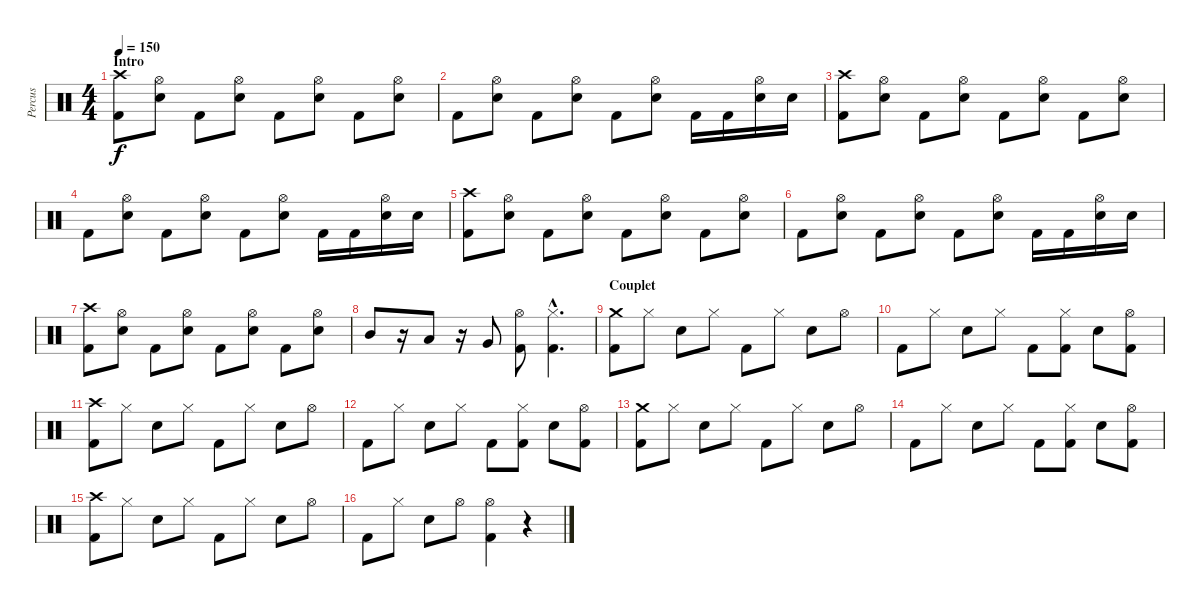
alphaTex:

\track ("Percus" "Percus") {instrument percussion}
\staff {score}
\articulation defaults
\ts (4 4)
\section ("" "Intro")
\tempo 150
\clef neutral
\ks c
("Crash high (hit)" "Kick (hit) 2").8{dy f} ("Hi-Hat (open)" "Snare (hit) 2").8 "Kick (hit) 2".8 ("Hi-Hat (open)" "Snare (hit) 2").8 "Kick (hit) 2".8 ("Hi-Hat (open)" "Snare (hit) 2").8 "Kick (hit) 2".8 ("Hi-Hat (open)" "Snare (hit) 2").8 |
"Kick (hit) 2".8 ("Hi-Hat (open)" "Snare (hit) 2").8 "Kick (hit) 2".8 ("Hi-Hat (open)" "Snare (hit) 2").8 "Kick (hit) 2".8 ("Hi-Hat (open)" "Snare (hit) 2").8 "Kick (hit) 2".16 "Kick (hit) 2".16 ("Hi-Hat (open)" "Snare (hit) 2").16 "Snare (hit) 2".16 |
("Crash high (hit)" "Kick (hit) 2").8 ("Hi-Hat (open)" "Snare (hit) 2").8 "Kick (hit) 2".8 ("Hi-Hat (open)" "Snare (hit) 2").8 "Kick (hit) 2".8 ("Hi-Hat (open)" "Snare (hit) 2").8 "Kick (hit) 2".8 ("Hi-Hat (open)" "Snare (hit) 2").8 |
"Kick (hit) 2".8 ("Hi-Hat (open)" "Snare (hit) 2").8 "Kick (hit) 2".8 ("Hi-Hat (open)" "Snare (hit) 2").8 "Kick (hit) 2".8 ("Hi-Hat (open)" "Snare (hit) 2").8 "Kick (hit) 2".16 "Kick (hit) 2".16 ("Hi-Hat (open)" "Snare (hit) 2").16 "Snare (hit) 2".16 |
("Crash high (hit)" "Kick (hit) 2").8 ("Hi-Hat (open)" "Snare (hit) 2").8 "Kick (hit) 2".8 ("Hi-Hat (open)" "Snare (hit) 2").8 "Kick (hit) 2".8 ("Hi-Hat (open)" "Snare (hit) 2").8 "Kick (hit) 2".8 ("Hi-Hat (open)" "Snare (hit) 2").8 |
"Kick (hit) 2".8 ("Hi-Hat (open)" "Snare (hit) 2").8 "Kick (hit) 2".8 ("Hi-Hat (open)" "Snare (hit) 2").8 "Kick (hit) 2".8 ("Hi-Hat (open)" "Snare (hit) 2").8 "Kick (hit) 2".16 "Kick (hit) 2".16 ("Hi-Hat (open)" "Snare (hit) 2").16 "Snare (hit) 2".16 |
("Crash high (hit)" "Kick (hit) 2").8 ("Hi-Hat (open)" "Snare (hit) 2").8 "Kick (hit) 2".8 ("Hi-Hat (open)" "Snare (hit) 2").8 "Kick (hit) 2".8 ("Hi-Hat (open)" "Snare (hit) 2").8 "Kick (hit) 2".8 ("Hi-Hat (open)" "Snare (hit) 2").8 |
"Mid Tom (hit)".8 r.16 "Low Tom (hit)".8 r.16 "Very Low Tom (hit)".8 ("Hi-Hat (open)" "Kick (hit) 2").8 ("Hi-Hat (closed)"{hac} "Kick (hit) 2"{hac}).4{d} |
\section ("" "Couplet")
("Crash medium (hit)" "Kick (hit) 2").8 "Hi-Hat (closed)".8 "Snare (hit) 2".8 "Hi-Hat (closed)".8 "Kick (hit) 2".8 "Hi-Hat (closed)".8 "Snare (hit) 2".8 "Hi-Hat (open)".8 |
"Kick (hit) 2".8 "Hi-Hat (closed)".8 "Snare (hit) 2".8 "Hi-Hat (closed)".8 "Kick (hit) 2".8 ("Hi-Hat (closed)" "Kick (hit) 2").8 "Snare (hit) 2".8 ("Hi-Hat (open)" "Kick (hit) 2").8 |
("Crash high (hit)" "Kick (hit) 2").8 "Hi-Hat (closed)".8 "Snare (hit) 2".8 "Hi-Hat (closed)".8 "Kick (hit) 2".8 "Hi-Hat (closed)".8 "Snare (hit) 2".8 "Hi-Hat (open)".8 |
"Kick (hit) 2".8 "Hi-Hat (closed)".8 "Snare (hit) 2".8 "Hi-Hat (closed)".8 "Kick (hit) 2".8 ("Hi-Hat (closed)" "Kick (hit) 2").8 "Snare (hit) 2".8 ("Hi-Hat (open)" "Kick (hit) 2").8 |
("Crash medium (hit)" "Kick (hit) 2").8 "Hi-Hat (closed)".8 "Snare (hit) 2".8 "Hi-Hat (closed)".8 "Kick (hit) 2".8 "Hi-Hat (closed)".8 "Snare (hit) 2".8 "Hi-Hat (open)".8 |
"Kick (hit) 2".8 "Hi-Hat (closed)".8 "Snare (hit) 2".8 "Hi-Hat (closed)".8 "Kick (hit) 2".8 ("Hi-Hat (closed)" "Kick (hit) 2").8 "Snare (hit) 2".8 ("Hi-Hat (open)" "Kick (hit) 2").8 |
("Crash high (hit)" "Kick (hit) 2").8 "Hi-Hat (closed)".8 "Snare (hit) 2".8 "Hi-Hat (closed)".8 "Kick (hit) 2".8 "Hi-Hat (closed)".8 "Snare (hit) 2".8 "Hi-Hat (open)".8 |
"Kick (hit) 2".8 "Hi-Hat (closed)".8 "Snare (hit) 2".8 "Hi-Hat (open)".8 ("Hi-Hat (open)" "Kick (hit) 2").4 r.4
